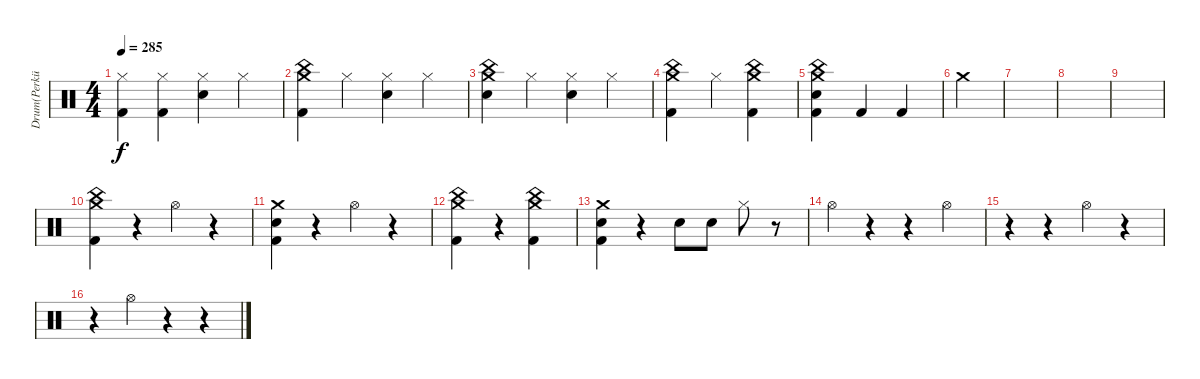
\track ("Drum(Perküsyon)" "Drum(Perkü") {instrument percussion}
\staff {score}
\articulation defaults
\ts (4 4)
\tempo 285
\clef neutral
\ks c
("Hi-Hat (closed)" "Kick (hit) 2").4{dy f} ("Hi-Hat (closed)" "Kick (hit) 2").4 ("Hi-Hat (closed)" "Electric Snare (hit)").4 "Hi-Hat (closed)".4 |
("Crash medium (hit)" "China (hit)" "Kick (hit) 2").4 "Hi-Hat (closed)".4 ("Hi-Hat (closed)" "Electric Snare (hit)").4 "Hi-Hat (closed)".4 |
("Crash medium (hit)" "China (hit)" "Electric Snare (hit)").4 "Hi-Hat (closed)".4 ("Hi-Hat (closed)" "Electric Snare (hit)").4 "Hi-Hat (closed)".4 |
("Crash medium (hit)" "China (hit)" "Kick (hit) 2").4 "Hi-Hat (closed)".4 ("Crash medium (hit)" "China (hit)" "Kick (hit) 2").4 |
("Crash medium (hit)" "China (hit)" "Kick (hit) 2" "Electric Snare (hit)").4 "Kick (hit) 2".4 "Kick (hit) 2".4 |
"Crash medium (hit)".4 |
|
|
|
("Crash medium (hit)" "China (hit)" "Kick (hit) 2").4 r.4 "Hi-Hat (open)".4 r.4 |
("Crash medium (hit)" "Electric Snare (hit)" "Kick (hit) 2").4 r.4 "Hi-Hat (open)".4 r.4 |
("Crash medium (hit)" "China (hit)" "Kick (hit) 2").4 r.4 ("Crash medium (hit)" "China (hit)" "Kick (hit) 2").4 |
("Crash medium (hit)" "Electric Snare (hit)" "Kick (hit) 2").4 r.4 "Electric Snare (hit)".8 "Electric Snare (hit)".8 "Hi-Hat (closed)".8 r.8 |
"Hi-Hat (open)".4 r.4 r.4 "Hi-Hat (open)".4 |
r.4 r.4 "Hi-Hat (open)".4 r.4 |
r.4 "Hi-Hat (open)".4 r.4 r.4
